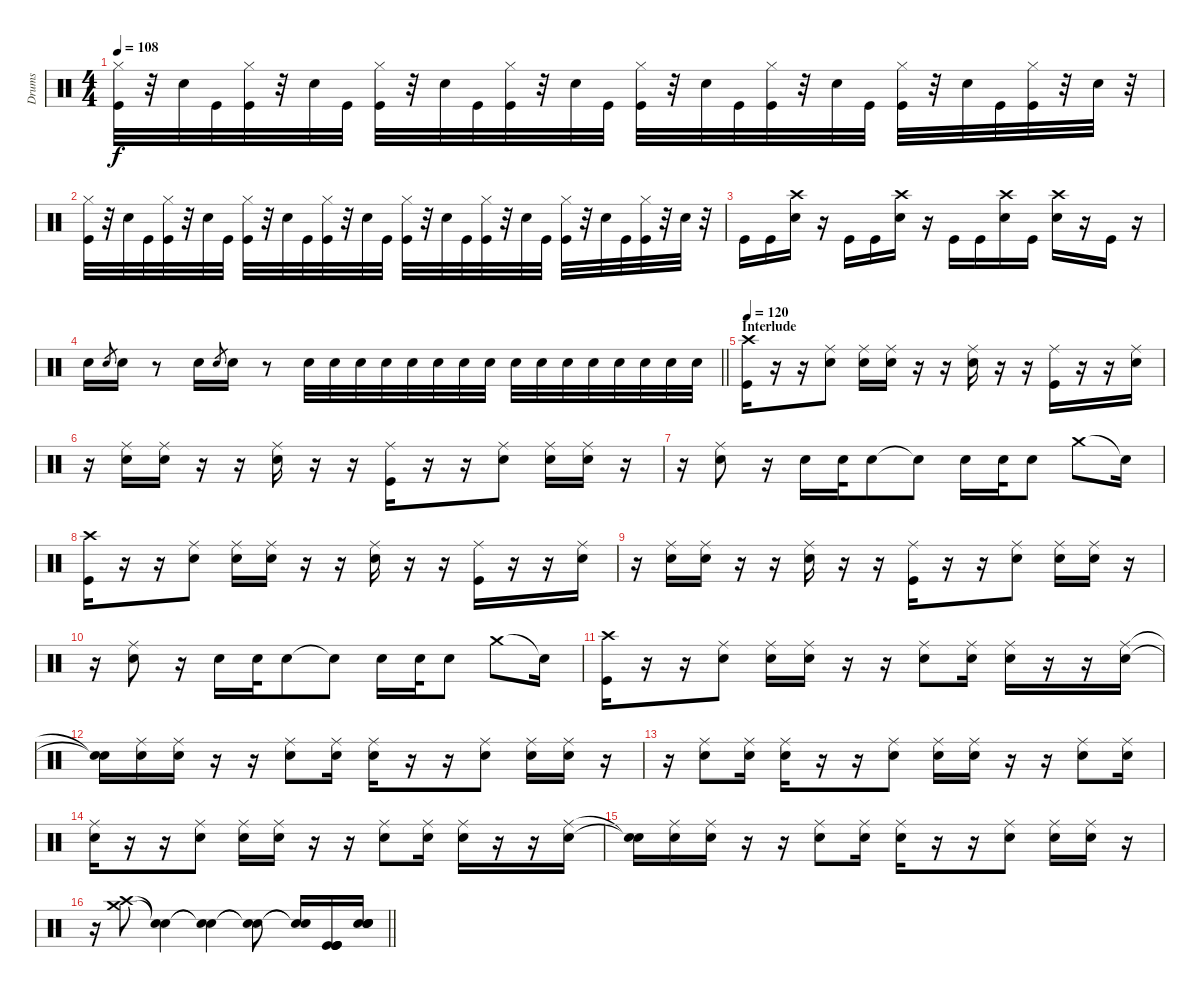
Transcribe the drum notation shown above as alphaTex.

\track ("Drums" "Drums") {instrument percussion}
\staff {score}
\articulation defaults
\ts (4 4)
\tempo 108
\clef neutral
\ks c
("Hi-Hat (closed)" "Kick (hit)").32{dy f} r.32 "Snare (hit) 2".32 "Kick (hit)".32 ("Hi-Hat (closed)" "Kick (hit)").32 r.32 "Snare (hit) 2".32 "Kick (hit)".32 ("Hi-Hat (closed)" "Kick (hit)").32 r.32 "Snare (hit) 2".32 "Kick (hit)".32 ("Hi-Hat (closed)" "Kick (hit)").32 r.32 "Snare (hit) 2".32 "Kick (hit)".32 ("Hi-Hat (closed)" "Kick (hit)").32 r.32 "Snare (hit) 2".32 "Kick (hit)".32 ("Hi-Hat (closed)" "Kick (hit)").32 r.32 "Snare (hit) 2".32 "Kick (hit)".32 ("Hi-Hat (closed)" "Kick (hit)").32 r.32 "Snare (hit) 2".32 "Kick (hit)".32 ("Hi-Hat (closed)" "Kick (hit)").32 r.32 "Snare (hit) 2".32 r.32 |
("Hi-Hat (closed)" "Kick (hit)").32 r.32 "Snare (hit) 2".32 "Kick (hit)".32 ("Hi-Hat (closed)" "Kick (hit)").32 r.32 "Snare (hit) 2".32 "Kick (hit)".32 ("Hi-Hat (closed)" "Kick (hit)").32 r.32 "Snare (hit) 2".32 "Kick (hit)".32 ("Hi-Hat (closed)" "Kick (hit)").32 r.32 "Snare (hit) 2".32 "Kick (hit)".32 ("Hi-Hat (closed)" "Kick (hit)").32 r.32 "Snare (hit) 2".32 "Kick (hit)".32 ("Hi-Hat (closed)" "Kick (hit)").32 r.32 "Snare (hit) 2".32 "Kick (hit)".32 ("Hi-Hat (closed)" "Kick (hit)").32 r.32 "Snare (hit) 2".32 "Kick (hit)".32 ("Hi-Hat (closed)" "Kick (hit)").32 r.32 "Snare (hit) 2".32 r.32 |
"Kick (hit)".16 "Kick (hit)".16 ("Crash high (hit)" "Snare (hit) 2").16 r.16 "Kick (hit)".16 "Kick (hit)".16 ("Crash high (hit)" "Snare (hit) 2").16 r.16 "Kick (hit)".16 "Kick (hit)".16 ("Crash high (hit)" "Snare (hit) 2").16 "Kick (hit)".16 ("Crash high (hit)" "Snare (hit) 2").16 r.16 "Kick (hit)".16 r.16 |
\barLineRight lightlight "Snare (hit) 2".16 "Snare (hit) 2".8{gr} "Snare (hit) 2".16
r.8 "Snare (hit) 2".16 "Snare (hit) 2".8{gr} "Snare (hit) 2".16 r.8 "Snare (hit) 2".32 "Snare (hit) 2".32 "Snare (hit) 2".32 "Snare (hit) 2".32 "Snare (hit) 2".32 "Snare (hit) 2".32 "Snare (hit) 2".32 "Snare (hit) 2".32 "Snare (hit) 2".32 "Snare (hit) 2".32 "Snare (hit) 2".32 "Snare (hit) 2".32 "Snare (hit) 2".32 "Snare (hit) 2".32 "Snare (hit) 2".32 "Snare (hit) 2".32 |
\section ("" "Interlude")
\tempo 119
\tempo 120
("Crash high (hit)" "Kick (hit)").16 r.16 r.16 ("Ride (middle)" "Snare (hit) 2").8 ("Ride (middle)" "Snare (hit) 2").16 ("Ride (middle)" "Snare (hit) 2").16 r.16 r.16 ("Ride (middle)" "Snare (hit) 2").16 r.16 r.16 ("Ride (middle)" "Kick (hit)").16 r.16 r.16 ("Ride (middle)" "Snare (hit) 2").16 |
r.16 ("Ride (middle)" "Snare (hit) 2").16 ("Ride (middle)" "Snare (hit) 2").16 r.16 r.16 ("Ride (middle)" "Snare (hit) 2").16 r.16 r.16 ("Ride (middle)" "Kick (hit)").16 r.16 r.16 ("Ride (middle)" "Snare (hit) 2").8 ("Ride (middle)" "Snare (hit) 2").16 ("Ride (middle)" "Snare (hit) 2").16 r.16 |
r.16 ("Ride (middle)" "Snare (hit) 2").8 r.16 "Snare (hit) 2".16 "Snare (hit) 2".32 "Snare (hit) 2".8 "Snare (hit) 2"{t}.8 "Snare (hit) 2".16 "Snare (hit) 2".32 "Snare (hit) 2".8 "Crash medium (hit)".8 "Snare (hit)"{t}.16 |
("Crash high (hit)" "Kick (hit)").16 r.16 r.16 ("Ride (middle)" "Snare (hit) 2").8 ("Ride (middle)" "Snare (hit) 2").16 ("Ride (middle)" "Snare (hit) 2").16 r.16 r.16 ("Ride (middle)" "Snare (hit) 2").16 r.16 r.16 ("Ride (middle)" "Kick (hit)").16 r.16 r.16 ("Ride (middle)" "Snare (hit) 2").16 |
r.16 ("Ride (middle)" "Snare (hit) 2").16 ("Ride (middle)" "Snare (hit) 2").16 r.16 r.16 ("Ride (middle)" "Snare (hit) 2").16 r.16 r.16 ("Ride (middle)" "Kick (hit)").16 r.16 r.16 ("Ride (middle)" "Snare (hit) 2").8 ("Ride (middle)" "Snare (hit) 2").16 ("Ride (middle)" "Snare (hit) 2").16 r.16 |
r.16 ("Ride (middle)" "Snare (hit) 2").8 r.16 "Snare (hit) 2".16 "Snare (hit) 2".32 "Snare (hit) 2".8 "Snare (hit) 2"{t}.8 "Snare (hit) 2".16 "Snare (hit) 2".32 "Snare (hit) 2".8 "Crash medium (hit)".8 "Snare (hit)"{t}.16 |
("Crash high (hit)" "Kick (hit)").16 r.16 r.16 ("Ride (middle)" "Snare (hit) 2").8 ("Ride (middle)" "Snare (hit) 2").16 ("Ride (middle)" "Snare (hit) 2").16 r.16 r.16 ("Ride (middle)" "Snare (hit) 2").8 ("Ride (middle)" "Snare (hit) 2").16 ("Ride (middle)" "Snare (hit) 2").16 r.16 r.16 ("Ride (middle)" "Snare (hit) 2").16 |
("Snare (hit)"{t} "Snare (hit)"{t}).16 ("Ride (middle)" "Snare (hit) 2").16 ("Ride (middle)" "Snare (hit) 2").16 r.16 r.16 ("Ride (middle)" "Snare (hit) 2").8 ("Ride (middle)" "Snare (hit) 2").16 ("Ride (middle)" "Snare (hit) 2").16 r.16 r.16 ("Ride (middle)" "Snare (hit) 2").8 ("Ride (middle)" "Snare (hit) 2").16 ("Ride (middle)" "Snare (hit) 2").16 r.16 |
r.16 ("Ride (middle)" "Snare (hit) 2").8 ("Ride (middle)" "Snare (hit) 2").16 ("Ride (middle)" "Snare (hit) 2").16 r.16 r.16 ("Ride (middle)" "Snare (hit) 2").8 ("Ride (middle)" "Snare (hit) 2").16 ("Ride (middle)" "Snare (hit) 2").16 r.16 r.16 ("Ride (middle)" "Snare (hit) 2").8 ("Ride (middle)" "Snare (hit) 2").16 |
("Ride (middle)" "Snare (hit) 2").16 r.16 r.16 ("Ride (middle)" "Snare (hit) 2").8 ("Ride (middle)" "Snare (hit) 2").16 ("Ride (middle)" "Snare (hit) 2").16 r.16 r.16 ("Ride (middle)" "Snare (hit) 2").8 ("Ride (middle)" "Snare (hit) 2").16 ("Ride (middle)" "Snare (hit) 2").16 r.16 r.16 ("Ride (middle)" "Snare (hit) 2").16 |
("Snare (hit)"{t} "Snare (hit)"{t}).16 ("Ride (middle)" "Snare (hit) 2").16 ("Ride (middle)" "Snare (hit) 2").16 r.16 r.16 ("Ride (middle)" "Snare (hit) 2").8 ("Ride (middle)" "Snare (hit) 2").16 ("Ride (middle)" "Snare (hit) 2").16 r.16 r.16 ("Ride (middle)" "Snare (hit) 2").8 ("Ride (middle)" "Snare (hit) 2").16 ("Ride (middle)" "Snare (hit) 2").16 r.16 |
\barLineRight lightlight
r.16 ("Crash high (hit)" "Crash medium (hit)").8 ("Snare (hit)"{t} "Snare (hit)"{t}).4 ("Snare (hit)"{t} "Snare (hit)"{t}).4 ("Snare (hit)"{t} "Snare (hit)"{t}).8 ("Snare (hit)"{t} "Snare (hit)"{t}).16 ("Kick (hit)" "Kick (hit)" "Kick (hit)" "Kick (hit)").16 ("Snare (hit) 2" "Snare (hit) 2" "Snare (hit) 2" "Snare (hit) 2").16
